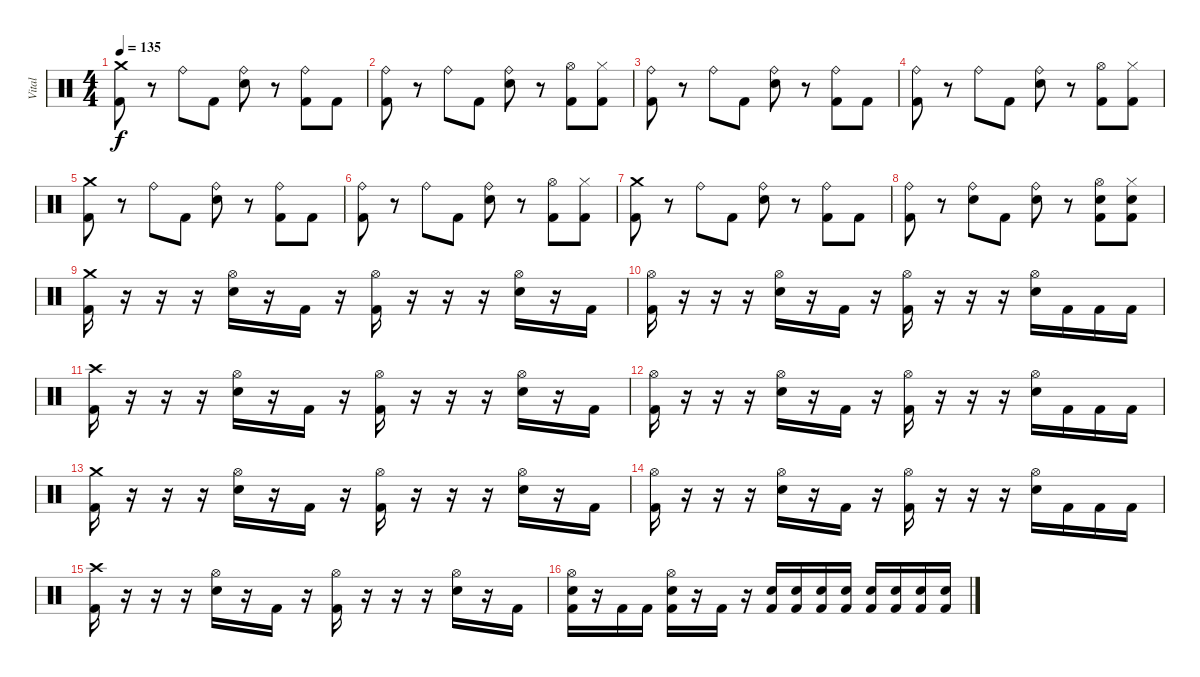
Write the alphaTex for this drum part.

\track ("Vital" "Vital") {instrument percussion}
\staff {score}
\articulation defaults
\ts (4 4)
\tempo 135
\clef neutral
\ks c
("Crash medium (hit)" "Kick (hit) 2").8{dy f} r.8 "Ride (bell)".8 "Kick (hit) 2".8 ("Ride (bell)" "Snare (hit) 2").8 r.8 ("Ride (bell)" "Kick (hit) 2").8 "Kick (hit) 2".8 |
("Ride (bell)" "Kick (hit) 2").8 r.8 "Ride (bell)".8 "Kick (hit) 2".8 ("Ride (bell)" "Snare (hit) 2").8 r.8 ("Hi-Hat (open)" "Kick (hit) 2").8 ("Hi-Hat (closed)" "Kick (hit) 2").8 |
("Ride (bell)" "Kick (hit) 2").8 r.8 "Ride (bell)".8 "Kick (hit) 2".8 ("Ride (bell)" "Snare (hit) 2").8 r.8 ("Ride (bell)" "Kick (hit) 2").8 "Kick (hit) 2".8 |
("Ride (bell)" "Kick (hit) 2").8 r.8 "Ride (bell)".8 "Kick (hit) 2".8 ("Ride (bell)" "Snare (hit) 2").8 r.8 ("Hi-Hat (open)" "Kick (hit) 2").8 ("Hi-Hat (closed)" "Kick (hit) 2").8 |
("Crash medium (hit)" "Kick (hit) 2").8 r.8 "Ride (bell)".8 "Kick (hit) 2".8 ("Ride (bell)" "Snare (hit) 2").8 r.8 ("Ride (bell)" "Kick (hit) 2").8 "Kick (hit) 2".8 |
("Ride (bell)" "Kick (hit) 2").8 r.8 "Ride (bell)".8 "Kick (hit) 2".8 ("Ride (bell)" "Snare (hit) 2").8 r.8 ("Hi-Hat (open)" "Kick (hit) 2").8 ("Hi-Hat (closed)" "Kick (hit) 2").8 |
("Crash medium (hit)" "Kick (hit) 2").8 r.8 "Ride (bell)".8 "Kick (hit) 2".8 ("Ride (bell)" "Snare (hit) 2").8 r.8 ("Ride (bell)" "Kick (hit) 2").8 "Kick (hit) 2".8 |
("Ride (bell)" "Kick (hit) 2").8 r.8 ("Ride (bell)" "Snare (hit) 2").8 "Kick (hit) 2".8 ("Ride (bell)" "Snare (hit) 2").8 r.8 ("Hi-Hat (open)" "Snare (hit) 2" "Kick (hit) 2").8 ("Hi-Hat (closed)" "Snare (hit) 2" "Kick (hit) 2").8 |
("Crash medium (hit)" "Kick (hit) 2").16 r.16 r.16 r.16 ("Hi-Hat (open)" "Snare (hit) 2").16 r.16 "Kick (hit) 2".16 r.16 ("Hi-Hat (open)" "Kick (hit) 2").16 r.16 r.16 r.16 ("Hi-Hat (open)" "Snare (hit) 2").16 r.16 "Kick (hit) 2".16 |
("Hi-Hat (open)" "Kick (hit) 2").16 r.16 r.16 r.16 ("Hi-Hat (open)" "Snare (hit) 2").16 r.16 "Kick (hit) 2".16 r.16 ("Hi-Hat (open)" "Kick (hit) 2").16 r.16 r.16 r.16 ("Hi-Hat (open)" "Snare (hit) 2").16 "Kick (hit) 2".16 "Kick (hit) 2".16 "Kick (hit) 2".16 |
("Crash high (hit)" "Kick (hit) 2").16 r.16 r.16 r.16 ("Hi-Hat (open)" "Snare (hit) 2").16 r.16 "Kick (hit) 2".16 r.16 ("Hi-Hat (open)" "Kick (hit) 2").16 r.16 r.16 r.16 ("Hi-Hat (open)" "Snare (hit) 2").16 r.16 "Kick (hit) 2".16 |
("Hi-Hat (open)" "Kick (hit) 2").16 r.16 r.16 r.16 ("Hi-Hat (open)" "Snare (hit) 2").16 r.16 "Kick (hit) 2".16 r.16 ("Hi-Hat (open)" "Kick (hit) 2").16 r.16 r.16 r.16 ("Hi-Hat (open)" "Snare (hit) 2").16 "Kick (hit) 2".16 "Kick (hit) 2".16 "Kick (hit) 2".16 |
("Crash medium (hit)" "Kick (hit) 2").16 r.16 r.16 r.16 ("Hi-Hat (open)" "Snare (hit) 2").16 r.16 "Kick (hit) 2".16 r.16 ("Hi-Hat (open)" "Kick (hit) 2").16 r.16 r.16 r.16 ("Hi-Hat (open)" "Snare (hit) 2").16 r.16 "Kick (hit) 2".16 |
("Hi-Hat (open)" "Kick (hit) 2").16 r.16 r.16 r.16 ("Hi-Hat (open)" "Snare (hit) 2").16 r.16 "Kick (hit) 2".16 r.16 ("Hi-Hat (open)" "Kick (hit) 2").16 r.16 r.16 r.16 ("Hi-Hat (open)" "Snare (hit) 2").16 "Kick (hit) 2".16 "Kick (hit) 2".16 "Kick (hit) 2".16 |
("Crash high (hit)" "Kick (hit) 2").16 r.16 r.16 r.16 ("Hi-Hat (open)" "Snare (hit) 2").16 r.16 "Kick (hit) 2".16 r.16 ("Hi-Hat (open)" "Kick (hit) 2").16 r.16 r.16 r.16 ("Hi-Hat (open)" "Snare (hit) 2").16 r.16 "Kick (hit) 2".16 |
("Hi-Hat (open)" "Snare (hit) 2" "Kick (hit) 2").16 r.16 "Kick (hit) 2".16 "Kick (hit) 2".16 ("Hi-Hat (open)" "Snare (hit) 2" "Kick (hit) 2").16 r.16 "Kick (hit) 2".16 r.16 ("Snare (hit) 2" "Kick (hit) 2").16 ("Snare (hit) 2" "Kick (hit) 2").16 ("Snare (hit) 2" "Kick (hit) 2").16 ("Snare (hit) 2" "Kick (hit) 2").16 ("Snare (hit) 2" "Kick (hit) 2").16 ("Snare (hit) 2" "Kick (hit) 2").16 ("Snare (hit) 2" "Kick (hit) 2").16 ("Snare (hit) 2" "Kick (hit) 2").16
